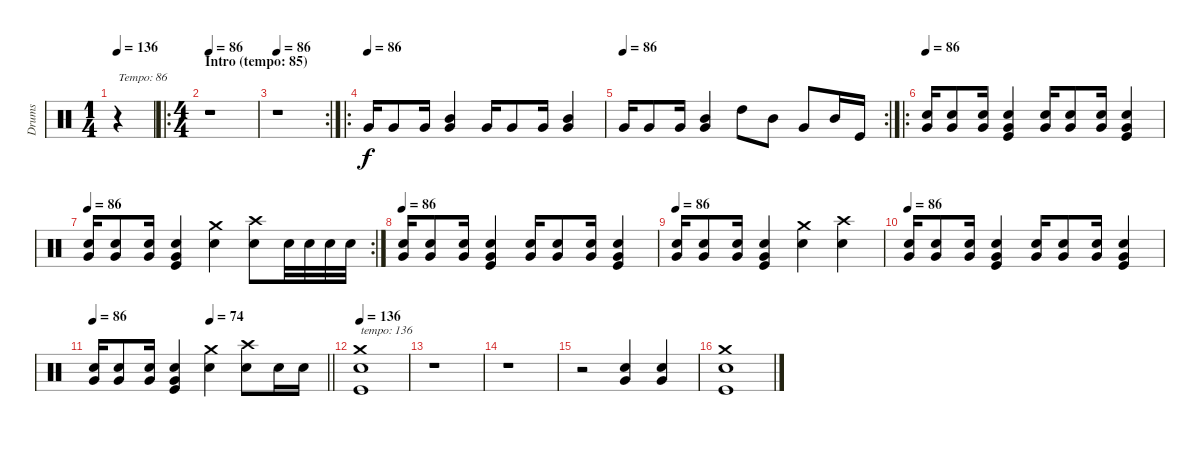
\track ("Drums" "Drums") {instrument percussion}
\staff {score}
\articulation defaults
\ts (1 4)
\tempo 136
\tempo 86
\tempo 136
\clef neutral
\ks c
r.4{txt "Tempo: 86" dy f} |
\ro
\ts (4 4)
\section ("" "Intro (tempo: 85)")
\tempo 86
r.1 |
\rc 2
\tempo 86
r.1 |
\ro
\tempo (86)
"Very Low Tom (hit)".16{volume 10} "Very Low Tom (hit)".8 "Very Low Tom (hit)".16 ("Mid Tom (hit)" "Very Low Tom (hit)").4 "Very Low Tom (hit)".16{volume 10} "Very Low Tom (hit)".8 "Very Low Tom (hit)".16 ("Mid Tom (hit)" "Very Low Tom (hit)").4 |
\rc 2
\tempo (86)
"Very Low Tom (hit)".16{volume 10} "Very Low Tom (hit)".8 "Very Low Tom (hit)".16 ("Mid Tom (hit)" "Very Low Tom (hit)").4 "High Tom (hit)".8{volume 10} "Mid Tom (hit)".8 "Very Low Tom (hit)".8 "Mid Tom (hit)".16 "Kick (hit)".16 |
\ro
\tempo 86
("Very Low Tom (hit)" "Electric Snare (hit)").16 ("Very Low Tom (hit)" "Electric Snare (hit)").8 ("Very Low Tom (hit)" "Electric Snare (hit)").16 ("Very Low Tom (hit)" "Electric Snare (hit)" "Kick (hit)").4 ("Very Low Tom (hit)" "Electric Snare (hit)").16 ("Very Low Tom (hit)" "Electric Snare (hit)").8 ("Very Low Tom (hit)" "Electric Snare (hit)").16 ("Very Low Tom (hit)" "Electric Snare (hit)" "Kick (hit)").4 |
\rc 2
\tempo 86
("Very Low Tom (hit)" "Electric Snare (hit)").16 ("Very Low Tom (hit)" "Electric Snare (hit)").8 ("Very Low Tom (hit)" "Electric Snare (hit)").16 ("Very Low Tom (hit)" "Electric Snare (hit)" "Kick (hit)").4 ("Crash medium (hit)" "Electric Snare (hit)").4 ("Crash high (hit)" "Electric Snare (hit)").8 "Electric Snare (hit)".32 "Electric Snare (hit)".32 "Electric Snare (hit)".32 "Electric Snare (hit)".32 |
\tempo 86
("Very Low Tom (hit)" "Electric Snare (hit)").16 ("Very Low Tom (hit)" "Electric Snare (hit)").8 ("Very Low Tom (hit)" "Electric Snare (hit)").16 ("Very Low Tom (hit)" "Electric Snare (hit)" "Kick (hit)").4 ("Very Low Tom (hit)" "Electric Snare (hit)").16 ("Very Low Tom (hit)" "Electric Snare (hit)").8 ("Very Low Tom (hit)" "Electric Snare (hit)").16 ("Very Low Tom (hit)" "Electric Snare (hit)" "Kick (hit)").4 |
\tempo 86
("Very Low Tom (hit)" "Electric Snare (hit)").16 ("Very Low Tom (hit)" "Electric Snare (hit)").8 ("Very Low Tom (hit)" "Electric Snare (hit)").16 ("Very Low Tom (hit)" "Electric Snare (hit)" "Kick (hit)").4 ("Crash medium (hit)" "Electric Snare (hit)").4 ("Crash high (hit)" "Electric Snare (hit)").4 |
\tempo 86
("Very Low Tom (hit)" "Electric Snare (hit)").16 ("Very Low Tom (hit)" "Electric Snare (hit)").8 ("Very Low Tom (hit)" "Electric Snare (hit)").16 ("Very Low Tom (hit)" "Electric Snare (hit)" "Kick (hit)").4 ("Very Low Tom (hit)" "Electric Snare (hit)").16 ("Very Low Tom (hit)" "Electric Snare (hit)").8 ("Very Low Tom (hit)" "Electric Snare (hit)").16 ("Very Low Tom (hit)" "Electric Snare (hit)" "Kick (hit)").4 |
\tempo 86
\tempo (74 0.5)
\barLineRight lightlight
("Very Low Tom (hit)" "Electric Snare (hit)").16 ("Very Low Tom (hit)" "Electric Snare (hit)").8 ("Very Low Tom (hit)" "Electric Snare (hit)").16 ("Very Low Tom (hit)" "Electric Snare (hit)" "Kick (hit)").4 ("Crash medium (hit)" "Electric Snare (hit)").4 ("Crash high (hit)" "Electric Snare (hit)").8 "Electric Snare (hit)".16 "Electric Snare (hit)".16 |
\tempo 136
("Crash medium (hit)" "Electric Snare (hit)" "Kick (hit)").1{txt "tempo: 136"} |
r.1 |
r.1 |
r.2 ("Very Low Tom (hit)" "Electric Snare (hit)").4 ("Very Low Tom (hit)" "Electric Snare (hit)").4 |
("Crash medium (hit)" "Electric Snare (hit)" "Kick (hit)").1
